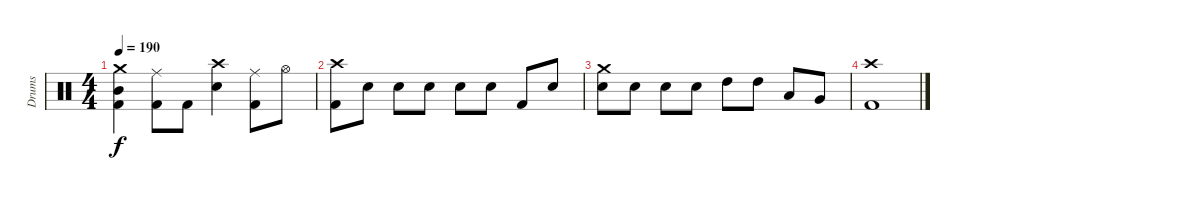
\track ("Drums" "Drums") {instrument percussion}
\staff {score}
\articulation defaults
\ts (4 4)
\tempo 190
\clef neutral
\ks c
("Crash medium (hit)" "Mid Tom (hit)" "Kick (hit) 2").4{dy f} ("Ride (middle)" "Kick (hit) 2").8 "Kick (hit) 2".8 ("Crash high (hit)" "Electric Snare (hit)").4 ("Ride (middle)" "Kick (hit) 2").8 "Hi-Hat (open)".8 |
("Crash high (hit)" "Kick (hit) 2").8 "Electric Snare (hit)".8 "Electric Snare (hit)".8 "Electric Snare (hit)".8 "Electric Snare (hit)".8 "Electric Snare (hit)".8 "Kick (hit) 2".8 "Electric Snare (hit)".8 |
("Crash medium (hit)" "Electric Snare (hit)").8 "Electric Snare (hit)".8 "Electric Snare (hit)".8 "Electric Snare (hit)".8 "High Tom (hit)".8 "High Tom (hit)".8 "Low Tom (hit)".8 "Very Low Tom (hit)".8 |
("Crash high (hit)" "Kick (hit) 2").1
